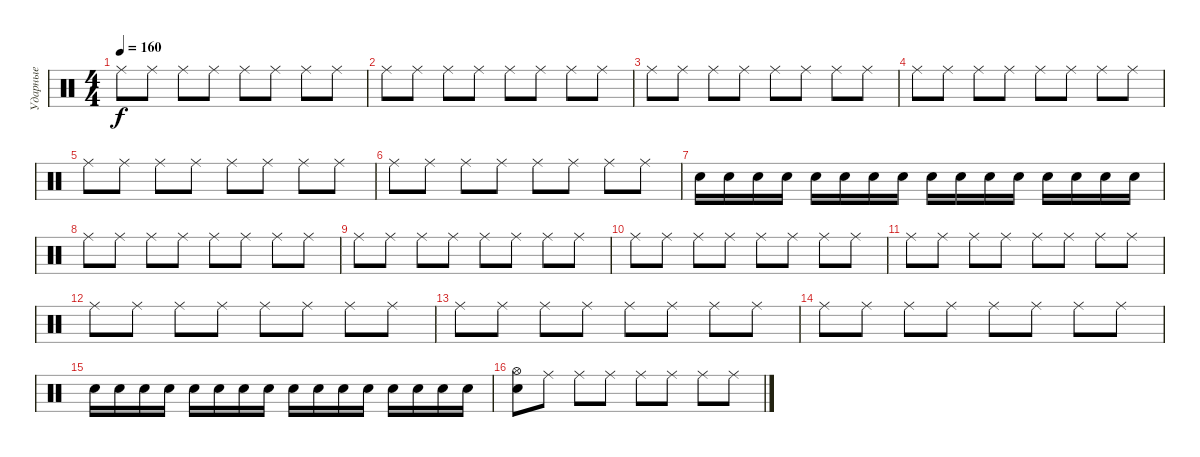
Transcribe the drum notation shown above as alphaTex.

\track ("Ударные" "Ударные") {instrument percussion}
\staff {score}
\articulation defaults
\ts (4 4)
\tempo 160
\clef neutral
\ks c "Ride (middle)".8{dy f} "Ride (middle)".8 "Ride (middle)".8 "Ride (middle)".8 "Ride (middle)".8 "Ride (middle)".8 "Ride (middle)".8 "Ride (middle)".8
|
"Ride (middle)".8 "Ride (middle)".8 "Ride (middle)".8 "Ride (middle)".8 "Ride (middle)".8 "Ride (middle)".8 "Ride (middle)".8 "Ride (middle)".8 |
"Ride (middle)".8 "Ride (middle)".8 "Ride (middle)".8 "Ride (middle)".8 "Ride (middle)".8 "Ride (middle)".8 "Ride (middle)".8 "Ride (middle)".8 |
"Ride (middle)".8 "Ride (middle)".8 "Ride (middle)".8 "Ride (middle)".8 "Ride (middle)".8 "Ride (middle)".8 "Ride (middle)".8 "Ride (middle)".8 |
"Ride (middle)".8 "Ride (middle)".8 "Ride (middle)".8 "Ride (middle)".8 "Ride (middle)".8 "Ride (middle)".8 "Ride (middle)".8 "Ride (middle)".8 |
"Ride (middle)".8 "Ride (middle)".8 "Ride (middle)".8 "Ride (middle)".8 "Ride (middle)".8 "Ride (middle)".8 "Ride (middle)".8 "Ride (middle)".8 |
"Snare (hit) 2".16 "Snare (hit) 2".16 "Snare (hit) 2".16 "Snare (hit) 2".16 "Snare (hit) 2".16 "Snare (hit) 2".16 "Snare (hit) 2".16 "Snare (hit) 2".16 "Snare (hit) 2".16 "Snare (hit) 2".16 "Snare (hit) 2".16 "Snare (hit) 2".16 "Snare (hit) 2".16 "Snare (hit) 2".16 "Snare (hit) 2".16 "Snare (hit) 2".16 |
"Ride (middle)".8 "Ride (middle)".8 "Ride (middle)".8 "Ride (middle)".8 "Ride (middle)".8 "Ride (middle)".8 "Ride (middle)".8 "Ride (middle)".8 |
"Ride (middle)".8 "Ride (middle)".8 "Ride (middle)".8 "Ride (middle)".8 "Ride (middle)".8 "Ride (middle)".8 "Ride (middle)".8 "Ride (middle)".8 |
"Ride (middle)".8 "Ride (middle)".8 "Ride (middle)".8 "Ride (middle)".8 "Ride (middle)".8 "Ride (middle)".8 "Ride (middle)".8 "Ride (middle)".8 |
"Ride (middle)".8 "Ride (middle)".8 "Ride (middle)".8 "Ride (middle)".8 "Ride (middle)".8 "Ride (middle)".8 "Ride (middle)".8 "Ride (middle)".8 |
"Ride (middle)".8 "Ride (middle)".8 "Ride (middle)".8 "Ride (middle)".8 "Ride (middle)".8 "Ride (middle)".8 "Ride (middle)".8 "Ride (middle)".8 |
"Ride (middle)".8 "Ride (middle)".8 "Ride (middle)".8 "Ride (middle)".8 "Ride (middle)".8 "Ride (middle)".8 "Ride (middle)".8 "Ride (middle)".8 |
"Ride (middle)".8 "Ride (middle)".8 "Ride (middle)".8 "Ride (middle)".8 "Ride (middle)".8 "Ride (middle)".8 "Ride (middle)".8 "Ride (middle)".8 |
"Snare (hit) 2".16 "Snare (hit) 2".16 "Snare (hit) 2".16 "Snare (hit) 2".16 "Snare (hit) 2".16 "Snare (hit) 2".16 "Snare (hit) 2".16 "Snare (hit) 2".16 "Snare (hit) 2".16 "Snare (hit) 2".16 "Snare (hit) 2".16 "Snare (hit) 2".16 "Snare (hit) 2".16 "Snare (hit) 2".16 "Snare (hit) 2".16 "Snare (hit) 2".16 |
("Hi-Hat (open)" "Snare (hit) 2").8 "Ride (middle)".8 "Ride (middle)".8 "Ride (middle)".8 "Ride (middle)".8 "Ride (middle)".8 "Ride (middle)".8 "Ride (middle)".8
